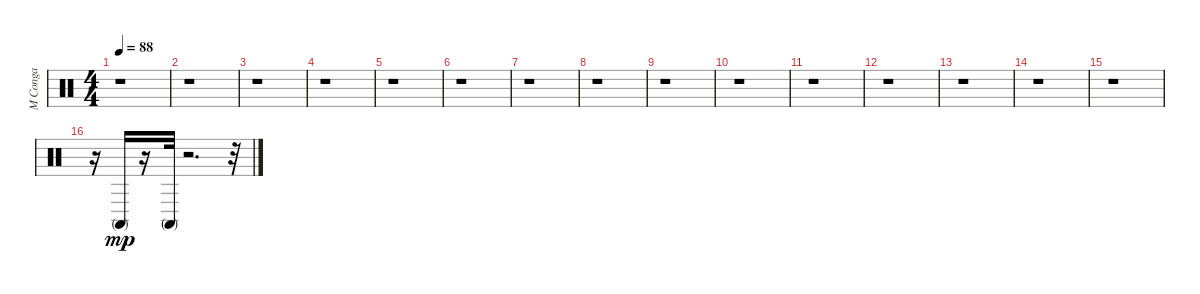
\track ("M Conga" "M Conga") {instrument percussion}
\staff {score}
\articulation defaults
\ts (4 4)
\tempo 88
\clef neutral
\ks c
r.1{dy mp} |
r.1 |
r.1 |
r.1 |
r.1 |
r.1 |
r.1 |
r.1 |
r.1 |
r.1 |
r.1 |
r.1 |
r.1 |
r.1 |
r.1 |
r.16 "Conga high (mute)".16 r.16 "Conga high (mute)".32 r.2{d} r.32
